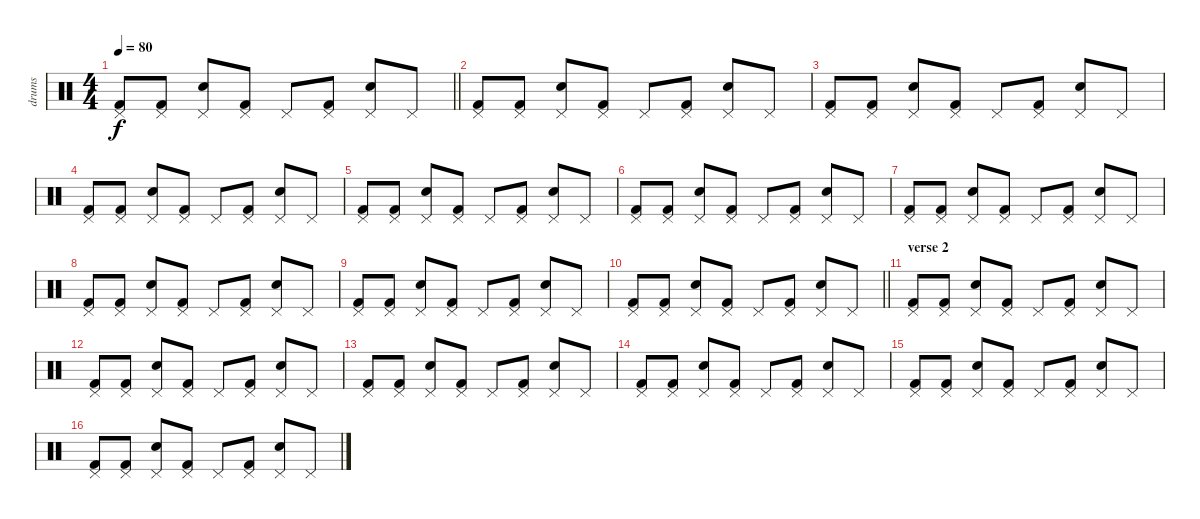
\track ("drums" "drums") {instrument percussion}
\staff {score}
\articulation defaults
\ts (4 4)
\tempo 80
\clef neutral
\barLineRight lightlight
\ks c
("Kick (hit) 2" "Pedal Hi-Hat (hit)").8{dy f} ("Kick (hit) 2" "Pedal Hi-Hat (hit)").8 ("Electric Snare (hit)" "Pedal Hi-Hat (hit)").8 ("Kick (hit) 2" "Pedal Hi-Hat (hit)").8 "Pedal Hi-Hat (hit)".8 ("Kick (hit) 2" "Pedal Hi-Hat (hit)").8 ("Electric Snare (hit)" "Pedal Hi-Hat (hit)").8 "Pedal Hi-Hat (hit)".8 |
("Kick (hit) 2" "Pedal Hi-Hat (hit)").8 ("Kick (hit) 2" "Pedal Hi-Hat (hit)").8 ("Electric Snare (hit)" "Pedal Hi-Hat (hit)").8 ("Kick (hit) 2" "Pedal Hi-Hat (hit)").8 "Pedal Hi-Hat (hit)".8 ("Kick (hit) 2" "Pedal Hi-Hat (hit)").8 ("Electric Snare (hit)" "Pedal Hi-Hat (hit)").8 "Pedal Hi-Hat (hit)".8 |
("Kick (hit) 2" "Pedal Hi-Hat (hit)").8 ("Kick (hit) 2" "Pedal Hi-Hat (hit)").8 ("Electric Snare (hit)" "Pedal Hi-Hat (hit)").8 ("Kick (hit) 2" "Pedal Hi-Hat (hit)").8 "Pedal Hi-Hat (hit)".8 ("Kick (hit) 2" "Pedal Hi-Hat (hit)").8 ("Electric Snare (hit)" "Pedal Hi-Hat (hit)").8 "Pedal Hi-Hat (hit)".8 |
("Kick (hit) 2" "Pedal Hi-Hat (hit)").8 ("Kick (hit) 2" "Pedal Hi-Hat (hit)").8 ("Electric Snare (hit)" "Pedal Hi-Hat (hit)").8 ("Kick (hit) 2" "Pedal Hi-Hat (hit)").8 "Pedal Hi-Hat (hit)".8 ("Kick (hit) 2" "Pedal Hi-Hat (hit)").8 ("Electric Snare (hit)" "Pedal Hi-Hat (hit)").8 "Pedal Hi-Hat (hit)".8 |
("Kick (hit) 2" "Pedal Hi-Hat (hit)").8 ("Kick (hit) 2" "Pedal Hi-Hat (hit)").8 ("Electric Snare (hit)" "Pedal Hi-Hat (hit)").8 ("Kick (hit) 2" "Pedal Hi-Hat (hit)").8 "Pedal Hi-Hat (hit)".8 ("Kick (hit) 2" "Pedal Hi-Hat (hit)").8 ("Electric Snare (hit)" "Pedal Hi-Hat (hit)").8 "Pedal Hi-Hat (hit)".8 |
("Kick (hit) 2" "Pedal Hi-Hat (hit)").8 ("Kick (hit) 2" "Pedal Hi-Hat (hit)").8 ("Electric Snare (hit)" "Pedal Hi-Hat (hit)").8 ("Kick (hit) 2" "Pedal Hi-Hat (hit)").8 "Pedal Hi-Hat (hit)".8 ("Kick (hit) 2" "Pedal Hi-Hat (hit)").8 ("Electric Snare (hit)" "Pedal Hi-Hat (hit)").8 "Pedal Hi-Hat (hit)".8 |
("Kick (hit) 2" "Pedal Hi-Hat (hit)").8 ("Kick (hit) 2" "Pedal Hi-Hat (hit)").8 ("Electric Snare (hit)" "Pedal Hi-Hat (hit)").8 ("Kick (hit) 2" "Pedal Hi-Hat (hit)").8 "Pedal Hi-Hat (hit)".8 ("Kick (hit) 2" "Pedal Hi-Hat (hit)").8 ("Electric Snare (hit)" "Pedal Hi-Hat (hit)").8 "Pedal Hi-Hat (hit)".8 |
("Kick (hit) 2" "Pedal Hi-Hat (hit)").8 ("Kick (hit) 2" "Pedal Hi-Hat (hit)").8 ("Electric Snare (hit)" "Pedal Hi-Hat (hit)").8 ("Kick (hit) 2" "Pedal Hi-Hat (hit)").8 "Pedal Hi-Hat (hit)".8 ("Kick (hit) 2" "Pedal Hi-Hat (hit)").8 ("Electric Snare (hit)" "Pedal Hi-Hat (hit)").8 "Pedal Hi-Hat (hit)".8 |
("Kick (hit) 2" "Pedal Hi-Hat (hit)").8 ("Kick (hit) 2" "Pedal Hi-Hat (hit)").8 ("Electric Snare (hit)" "Pedal Hi-Hat (hit)").8 ("Kick (hit) 2" "Pedal Hi-Hat (hit)").8 "Pedal Hi-Hat (hit)".8 ("Kick (hit) 2" "Pedal Hi-Hat (hit)").8 ("Electric Snare (hit)" "Pedal Hi-Hat (hit)").8 "Pedal Hi-Hat (hit)".8 |
\barLineRight lightlight
("Kick (hit) 2" "Pedal Hi-Hat (hit)").8 ("Kick (hit) 2" "Pedal Hi-Hat (hit)").8 ("Electric Snare (hit)" "Pedal Hi-Hat (hit)").8 ("Kick (hit) 2" "Pedal Hi-Hat (hit)").8 "Pedal Hi-Hat (hit)".8 ("Kick (hit) 2" "Pedal Hi-Hat (hit)").8 ("Electric Snare (hit)" "Pedal Hi-Hat (hit)").8 "Pedal Hi-Hat (hit)".8 |
\section ("" "verse 2")
("Kick (hit) 2" "Pedal Hi-Hat (hit)").8 ("Kick (hit) 2" "Pedal Hi-Hat (hit)").8 ("Electric Snare (hit)" "Pedal Hi-Hat (hit)").8 ("Kick (hit) 2" "Pedal Hi-Hat (hit)").8 "Pedal Hi-Hat (hit)".8 ("Kick (hit) 2" "Pedal Hi-Hat (hit)").8 ("Electric Snare (hit)" "Pedal Hi-Hat (hit)").8 "Pedal Hi-Hat (hit)".8 |
("Kick (hit) 2" "Pedal Hi-Hat (hit)").8 ("Kick (hit) 2" "Pedal Hi-Hat (hit)").8 ("Electric Snare (hit)" "Pedal Hi-Hat (hit)").8 ("Kick (hit) 2" "Pedal Hi-Hat (hit)").8 "Pedal Hi-Hat (hit)".8 ("Kick (hit) 2" "Pedal Hi-Hat (hit)").8 ("Electric Snare (hit)" "Pedal Hi-Hat (hit)").8 "Pedal Hi-Hat (hit)".8 |
("Kick (hit) 2" "Pedal Hi-Hat (hit)").8 ("Kick (hit) 2" "Pedal Hi-Hat (hit)").8 ("Electric Snare (hit)" "Pedal Hi-Hat (hit)").8 ("Kick (hit) 2" "Pedal Hi-Hat (hit)").8 "Pedal Hi-Hat (hit)".8 ("Kick (hit) 2" "Pedal Hi-Hat (hit)").8 ("Electric Snare (hit)" "Pedal Hi-Hat (hit)").8 "Pedal Hi-Hat (hit)".8 |
("Kick (hit) 2" "Pedal Hi-Hat (hit)").8 ("Kick (hit) 2" "Pedal Hi-Hat (hit)").8 ("Electric Snare (hit)" "Pedal Hi-Hat (hit)").8 ("Kick (hit) 2" "Pedal Hi-Hat (hit)").8 "Pedal Hi-Hat (hit)".8 ("Kick (hit) 2" "Pedal Hi-Hat (hit)").8 ("Electric Snare (hit)" "Pedal Hi-Hat (hit)").8 "Pedal Hi-Hat (hit)".8 |
("Kick (hit) 2" "Pedal Hi-Hat (hit)").8 ("Kick (hit) 2" "Pedal Hi-Hat (hit)").8 ("Electric Snare (hit)" "Pedal Hi-Hat (hit)").8 ("Kick (hit) 2" "Pedal Hi-Hat (hit)").8 "Pedal Hi-Hat (hit)".8 ("Kick (hit) 2" "Pedal Hi-Hat (hit)").8 ("Electric Snare (hit)" "Pedal Hi-Hat (hit)").8 "Pedal Hi-Hat (hit)".8 |
("Kick (hit) 2" "Pedal Hi-Hat (hit)").8 ("Kick (hit) 2" "Pedal Hi-Hat (hit)").8 ("Electric Snare (hit)" "Pedal Hi-Hat (hit)").8 ("Kick (hit) 2" "Pedal Hi-Hat (hit)").8 "Pedal Hi-Hat (hit)".8 ("Kick (hit) 2" "Pedal Hi-Hat (hit)").8 ("Electric Snare (hit)" "Pedal Hi-Hat (hit)").8 "Pedal Hi-Hat (hit)".8
